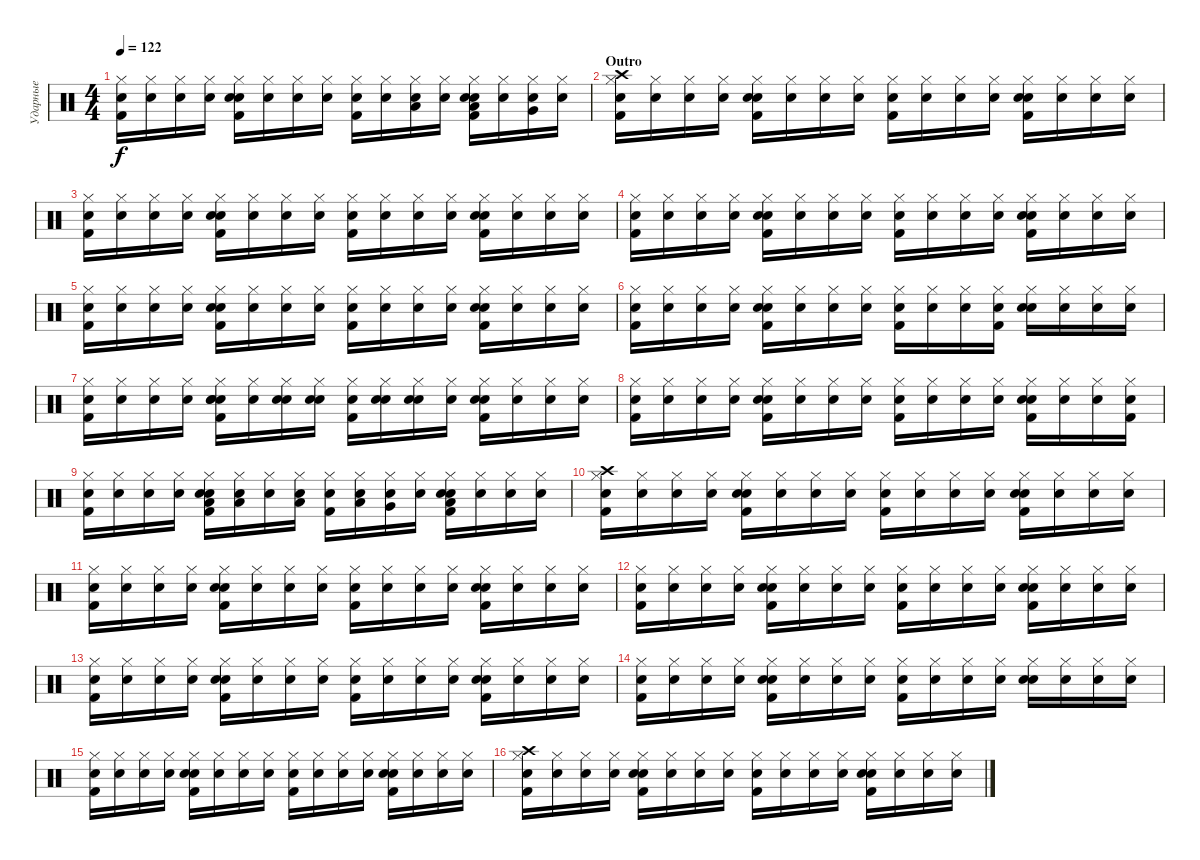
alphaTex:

\track ("Ударные" "Ударные") {instrument percussion}
\staff {score}
\articulation defaults
\ts (4 4)
\tempo 122
\clef neutral
\ks c
("Snare (hit)" "Kick (hit) 2" "Hi-Hat (closed)").16{dy f} ("Snare (hit)" "Hi-Hat (closed)").16 ("Snare (hit)" "Hi-Hat (closed)").16 ("Snare (hit)" "Hi-Hat (closed)").16 ("Snare (hit)" "Kick (hit) 2" "Snare (hit) 2" "Hi-Hat (closed)").16 ("Snare (hit)" "Hi-Hat (closed)").16 ("Snare (hit)" "Hi-Hat (closed)").16 ("Snare (hit)" "Hi-Hat (closed)").16 ("Snare (hit)" "Kick (hit) 2" "Hi-Hat (closed)").16 ("Snare (hit)" "Hi-Hat (closed)").16 ("Snare (hit)" "Low Tom (hit)" "Hi-Hat (closed)").16 ("Snare (hit)" "Hi-Hat (closed)").16 ("Snare (hit)" "Low Tom (hit)" "Kick (hit) 2" "Snare (hit) 2" "Hi-Hat (closed)").16 ("Snare (hit)" "Hi-Hat (closed)").16 ("Snare (hit)" "Very Low Tom (hit)" "Hi-Hat (closed)").16 ("Snare (hit)" "Hi-Hat (closed)").16 |
\section ("" "Outro")
("Snare (hit)" "Hi-Hat (closed)" "Kick (hit) 2" "Crash high (hit)").16 ("Snare (hit)" "Hi-Hat (closed)").16 ("Snare (hit)" "Hi-Hat (closed)").16 ("Snare (hit)" "Hi-Hat (closed)").16 ("Snare (hit)" "Kick (hit) 2" "Hi-Hat (closed)" "Snare (hit) 2").16 ("Snare (hit)" "Hi-Hat (closed)").16 ("Snare (hit)" "Hi-Hat (closed)").16 ("Snare (hit)" "Hi-Hat (closed)").16 ("Snare (hit)" "Hi-Hat (closed)" "Kick (hit) 2").16 ("Snare (hit)" "Hi-Hat (closed)").16 ("Snare (hit)" "Hi-Hat (closed)").16 ("Snare (hit)" "Hi-Hat (closed)").16 ("Snare (hit)" "Kick (hit) 2" "Hi-Hat (closed)" "Snare (hit) 2").16 ("Snare (hit)" "Hi-Hat (closed)").16 ("Snare (hit)" "Hi-Hat (closed)").16 ("Snare (hit)" "Hi-Hat (closed)").16 |
("Snare (hit)" "Kick (hit) 2" "Hi-Hat (closed)").16 ("Snare (hit)" "Hi-Hat (closed)").16 ("Snare (hit)" "Hi-Hat (closed)").16 ("Snare (hit)" "Hi-Hat (closed)").16 ("Snare (hit)" "Kick (hit) 2" "Snare (hit) 2" "Hi-Hat (closed)").16 ("Snare (hit)" "Hi-Hat (closed)").16 ("Snare (hit)" "Hi-Hat (closed)").16 ("Snare (hit)" "Hi-Hat (closed)").16 ("Snare (hit)" "Kick (hit) 2" "Hi-Hat (closed)").16 ("Snare (hit)" "Hi-Hat (closed)").16 ("Snare (hit)" "Hi-Hat (closed)").16 ("Snare (hit)" "Hi-Hat (closed)").16 ("Snare (hit)" "Kick (hit) 2" "Snare (hit) 2" "Hi-Hat (closed)").16 ("Snare (hit)" "Hi-Hat (closed)").16 ("Snare (hit)" "Hi-Hat (closed)").16 ("Snare (hit)" "Hi-Hat (closed)").16 |
("Snare (hit)" "Kick (hit) 2" "Hi-Hat (closed)").16 ("Snare (hit)" "Hi-Hat (closed)").16 ("Snare (hit)" "Hi-Hat (closed)").16 ("Snare (hit)" "Hi-Hat (closed)").16 ("Snare (hit)" "Kick (hit) 2" "Snare (hit) 2" "Hi-Hat (closed)").16 ("Snare (hit)" "Hi-Hat (closed)").16 ("Snare (hit)" "Hi-Hat (closed)").16 ("Snare (hit)" "Hi-Hat (closed)").16 ("Snare (hit)" "Kick (hit) 2" "Hi-Hat (closed)").16 ("Snare (hit)" "Hi-Hat (closed)").16 ("Snare (hit)" "Hi-Hat (closed)").16 ("Snare (hit)" "Hi-Hat (closed)").16 ("Snare (hit)" "Kick (hit) 2" "Snare (hit) 2" "Hi-Hat (closed)").16 ("Snare (hit)" "Hi-Hat (closed)").16 ("Snare (hit)" "Hi-Hat (closed)").16 ("Snare (hit)" "Hi-Hat (closed)").16 |
("Snare (hit)" "Kick (hit) 2" "Hi-Hat (closed)").16 ("Snare (hit)" "Hi-Hat (closed)").16 ("Snare (hit)" "Hi-Hat (closed)").16 ("Snare (hit)" "Hi-Hat (closed)").16 ("Snare (hit)" "Kick (hit) 2" "Snare (hit) 2" "Hi-Hat (closed)").16 ("Snare (hit)" "Hi-Hat (closed)").16 ("Snare (hit)" "Hi-Hat (closed)").16 ("Snare (hit)" "Hi-Hat (closed)").16 ("Snare (hit)" "Kick (hit) 2" "Hi-Hat (closed)").16 ("Snare (hit)" "Hi-Hat (closed)").16 ("Snare (hit)" "Hi-Hat (closed)").16 ("Snare (hit)" "Hi-Hat (closed)").16 ("Snare (hit)" "Kick (hit) 2" "Snare (hit) 2" "Hi-Hat (closed)").16 ("Snare (hit)" "Hi-Hat (closed)").16 ("Snare (hit)" "Hi-Hat (closed)").16 ("Snare (hit)" "Hi-Hat (closed)").16 |
("Snare (hit)" "Kick (hit) 2" "Hi-Hat (closed)").16 ("Snare (hit)" "Hi-Hat (closed)").16 ("Snare (hit)" "Hi-Hat (closed)").16 ("Snare (hit)" "Hi-Hat (closed)").16 ("Snare (hit)" "Kick (hit) 2" "Snare (hit) 2" "Hi-Hat (closed)").16 ("Snare (hit)" "Hi-Hat (closed)").16 ("Snare (hit)" "Hi-Hat (closed)").16 ("Snare (hit)" "Hi-Hat (closed)").16 ("Snare (hit)" "Kick (hit) 2" "Hi-Hat (closed)").16 ("Snare (hit)" "Hi-Hat (closed)").16 ("Snare (hit)" "Hi-Hat (closed)").16 ("Snare (hit)" "Kick (hit) 2" "Hi-Hat (closed)").16 ("Snare (hit)" "Snare (hit) 2" "Hi-Hat (closed)").16 ("Snare (hit)" "Hi-Hat (closed)").16 ("Snare (hit)" "Hi-Hat (closed)").16 ("Snare (hit)" "Hi-Hat (closed)").16 |
("Snare (hit)" "Kick (hit) 2" "Hi-Hat (closed)").16 ("Snare (hit)" "Hi-Hat (closed)").16 ("Snare (hit)" "Hi-Hat (closed)").16 ("Snare (hit)" "Hi-Hat (closed)").16 ("Snare (hit)" "Hand Clap (hit)" "Kick (hit) 2" "Snare (hit) 2" "Hi-Hat (closed)").16 ("Snare (hit)" "Hi-Hat (closed)").16 ("Snare (hit)" "Hand Clap (hit)" "Hi-Hat (closed)").16 ("Snare (hit)" "Hand Clap (hit)" "Hi-Hat (closed)").16 ("Snare (hit)" "Kick (hit) 2" "Hi-Hat (closed)").16 ("Snare (hit)" "Hand Clap (hit)" "Hi-Hat (closed)").16 ("Snare (hit)" "Hand Clap (hit)" "Hi-Hat (closed)").16 ("Snare (hit)" "Hi-Hat (closed)").16 ("Snare (hit)" "Kick (hit) 2" "Snare (hit) 2" "Hi-Hat (closed)").16 ("Snare (hit)" "Hi-Hat (closed)").16 ("Snare (hit)" "Hi-Hat (closed)").16 ("Snare (hit)" "Hi-Hat (closed)").16 |
("Snare (hit)" "Kick (hit) 2" "Hi-Hat (closed)").16 ("Snare (hit)" "Hi-Hat (closed)").16 ("Snare (hit)" "Hi-Hat (closed)").16 ("Snare (hit)" "Hi-Hat (closed)").16 ("Snare (hit)" "Kick (hit) 2" "Snare (hit) 2" "Hi-Hat (closed)").16 ("Snare (hit)" "Hi-Hat (closed)").16 ("Snare (hit)" "Hi-Hat (closed)").16 ("Snare (hit)" "Hi-Hat (closed)").16 ("Snare (hit)" "Kick (hit) 2" "Hi-Hat (closed)").16 ("Snare (hit)" "Hi-Hat (closed)").16 ("Snare (hit)" "Hi-Hat (closed)").16 ("Snare (hit)" "Hi-Hat (closed)").16 ("Snare (hit)" "Kick (hit) 2" "Snare (hit) 2" "Hi-Hat (closed)").16 ("Snare (hit)" "Hi-Hat (closed)").16 ("Snare (hit)" "Hi-Hat (closed)").16 ("Snare (hit)" "Kick (hit) 2" "Hi-Hat (closed)").16 |
("Snare (hit)" "Kick (hit) 2" "Hi-Hat (closed)").16 ("Snare (hit)" "Hi-Hat (closed)").16 ("Snare (hit)" "Hi-Hat (closed)").16 ("Snare (hit)" "Hi-Hat (closed)").16 ("Snare (hit)" "Kick (hit) 2" "Snare (hit) 2" "Hi-Hat (closed)" "Low Tom (hit)").16 ("Snare (hit)" "Hi-Hat (closed)" "Low Tom (hit)").16 ("Snare (hit)" "Hi-Hat (closed)").16 ("Snare (hit)" "Low Tom (hit)" "Hi-Hat (closed)").16 ("Snare (hit)" "Kick (hit) 2" "Hi-Hat (closed)").16 ("Snare (hit)" "Low Tom (hit)" "Hi-Hat (closed)").16 ("Snare (hit)" "Very Low Tom (hit)" "Hi-Hat (closed)").16 ("Snare (hit)" "Hi-Hat (closed)").16 ("Snare (hit)" "Kick (hit) 2" "Low Floor Tom (hit)" "Snare (hit) 2" "Hi-Hat (closed)").16 ("Snare (hit)" "Hi-Hat (closed)").16 ("Snare (hit)" "Hi-Hat (closed)").16 ("Snare (hit)" "Hi-Hat (closed)").16 |
("Snare (hit)" "Hi-Hat (closed)" "Kick (hit) 2" "Crash high (hit)").16 ("Snare (hit)" "Hi-Hat (closed)").16 ("Snare (hit)" "Hi-Hat (closed)").16 ("Snare (hit)" "Hi-Hat (closed)").16 ("Snare (hit)" "Kick (hit) 2" "Hi-Hat (closed)" "Snare (hit) 2").16 ("Snare (hit)" "Hi-Hat (closed)").16 ("Snare (hit)" "Hi-Hat (closed)").16 ("Snare (hit)" "Hi-Hat (closed)").16 ("Snare (hit)" "Hi-Hat (closed)" "Kick (hit) 2").16 ("Snare (hit)" "Hi-Hat (closed)").16 ("Snare (hit)" "Hi-Hat (closed)").16 ("Snare (hit)" "Hi-Hat (closed)").16 ("Snare (hit)" "Kick (hit) 2" "Hi-Hat (closed)" "Snare (hit) 2").16 ("Snare (hit)" "Hi-Hat (closed)").16 ("Snare (hit)" "Hi-Hat (closed)").16 ("Snare (hit)" "Hi-Hat (closed)").16 |
("Snare (hit)" "Kick (hit) 2" "Hi-Hat (closed)").16 ("Snare (hit)" "Hi-Hat (closed)").16 ("Snare (hit)" "Hi-Hat (closed)").16 ("Snare (hit)" "Hi-Hat (closed)").16 ("Snare (hit)" "Kick (hit) 2" "Snare (hit) 2" "Hi-Hat (closed)").16 ("Snare (hit)" "Hi-Hat (closed)").16 ("Snare (hit)" "Hi-Hat (closed)").16 ("Snare (hit)" "Hi-Hat (closed)").16 ("Snare (hit)" "Kick (hit) 2" "Hi-Hat (closed)").16 ("Snare (hit)" "Hi-Hat (closed)").16 ("Snare (hit)" "Hi-Hat (closed)").16 ("Snare (hit)" "Hi-Hat (closed)").16 ("Snare (hit)" "Kick (hit) 2" "Snare (hit) 2" "Hi-Hat (closed)").16 ("Snare (hit)" "Hi-Hat (closed)").16 ("Snare (hit)" "Hi-Hat (closed)").16 ("Snare (hit)" "Hi-Hat (closed)").16 |
("Snare (hit)" "Kick (hit) 2" "Hi-Hat (closed)").16 ("Snare (hit)" "Hi-Hat (closed)").16 ("Snare (hit)" "Hi-Hat (closed)").16 ("Snare (hit)" "Hi-Hat (closed)").16 ("Snare (hit)" "Kick (hit) 2" "Snare (hit) 2" "Hi-Hat (closed)").16 ("Snare (hit)" "Hi-Hat (closed)").16 ("Snare (hit)" "Hi-Hat (closed)").16 ("Snare (hit)" "Hi-Hat (closed)").16 ("Snare (hit)" "Kick (hit) 2" "Hi-Hat (closed)").16 ("Snare (hit)" "Hi-Hat (closed)").16 ("Snare (hit)" "Hi-Hat (closed)").16 ("Snare (hit)" "Hi-Hat (closed)").16 ("Snare (hit)" "Kick (hit) 2" "Snare (hit) 2" "Hi-Hat (closed)").16 ("Snare (hit)" "Hi-Hat (closed)").16 ("Snare (hit)" "Hi-Hat (closed)").16 ("Snare (hit)" "Hi-Hat (closed)").16 |
("Snare (hit)" "Kick (hit) 2" "Hi-Hat (closed)").16 ("Snare (hit)" "Hi-Hat (closed)").16 ("Snare (hit)" "Hi-Hat (closed)").16 ("Snare (hit)" "Hi-Hat (closed)").16 ("Snare (hit)" "Kick (hit) 2" "Snare (hit) 2" "Hi-Hat (closed)").16 ("Snare (hit)" "Hi-Hat (closed)").16 ("Snare (hit)" "Hi-Hat (closed)").16 ("Snare (hit)" "Hi-Hat (closed)").16 ("Snare (hit)" "Kick (hit) 2" "Hi-Hat (closed)").16 ("Snare (hit)" "Hi-Hat (closed)").16 ("Snare (hit)" "Hi-Hat (closed)").16 ("Snare (hit)" "Hi-Hat (closed)").16 ("Snare (hit)" "Kick (hit) 2" "Snare (hit) 2" "Hi-Hat (closed)").16 ("Snare (hit)" "Hi-Hat (closed)").16 ("Snare (hit)" "Hi-Hat (closed)").16 ("Snare (hit)" "Hi-Hat (closed)").16 |
("Snare (hit)" "Kick (hit) 2" "Hi-Hat (closed)").16 ("Snare (hit)" "Hi-Hat (closed)").16 ("Snare (hit)" "Hi-Hat (closed)").16 ("Snare (hit)" "Hi-Hat (closed)").16 ("Snare (hit)" "Kick (hit) 2" "Snare (hit) 2" "Hi-Hat (closed)").16 ("Snare (hit)" "Hi-Hat (closed)").16 ("Snare (hit)" "Hi-Hat (closed)").16 ("Snare (hit)" "Hi-Hat (closed)").16 ("Snare (hit)" "Kick (hit) 2" "Hi-Hat (closed)").16 ("Snare (hit)" "Hi-Hat (closed)").16 ("Snare (hit)" "Hi-Hat (closed)").16 ("Snare (hit)" "Hi-Hat (closed)").16 ("Snare (hit)" "Snare (hit) 2" "Hi-Hat (closed)").16 ("Snare (hit)" "Hi-Hat (closed)").16 ("Snare (hit)" "Hi-Hat (closed)").16 ("Snare (hit)" "Hi-Hat (closed)").16 |
("Snare (hit)" "Kick (hit) 2" "Hi-Hat (closed)").16 ("Snare (hit)" "Hi-Hat (closed)").16 ("Snare (hit)" "Hi-Hat (closed)").16 ("Snare (hit)" "Hi-Hat (closed)").16 ("Snare (hit)" "Kick (hit) 2" "Snare (hit) 2" "Hi-Hat (closed)").16 ("Snare (hit)" "Hi-Hat (closed)").16 ("Snare (hit)" "Hi-Hat (closed)").16 ("Snare (hit)" "Hi-Hat (closed)").16 ("Snare (hit)" "Kick (hit) 2" "Hi-Hat (closed)").16 ("Snare (hit)" "Hi-Hat (closed)").16 ("Snare (hit)" "Hi-Hat (closed)").16 ("Snare (hit)" "Hi-Hat (closed)").16 ("Snare (hit)" "Kick (hit) 2" "Snare (hit) 2" "Hi-Hat (closed)").16 ("Snare (hit)" "Hi-Hat (closed)").16 ("Snare (hit)" "Hi-Hat (closed)").16 ("Snare (hit)" "Hi-Hat (closed)").16 |
("Snare (hit)" "Crash high (hit)" "Kick (hit) 2" "Hi-Hat (closed)").16 ("Snare (hit)" "Hi-Hat (closed)").16 ("Snare (hit)" "Hi-Hat (closed)").16 ("Snare (hit)" "Hi-Hat (closed)").16 ("Snare (hit)" "Kick (hit) 2" "Snare (hit) 2" "Hi-Hat (closed)").16 ("Snare (hit)" "Hi-Hat (closed)").16 ("Snare (hit)" "Hi-Hat (closed)").16 ("Snare (hit)" "Hi-Hat (closed)").16 ("Snare (hit)" "Kick (hit) 2" "Hi-Hat (closed)").16 ("Snare (hit)" "Hi-Hat (closed)").16 ("Snare (hit)" "Hi-Hat (closed)").16 ("Snare (hit)" "Hi-Hat (closed)").16 ("Snare (hit)" "Kick (hit) 2" "Snare (hit) 2" "Hi-Hat (closed)").16 ("Snare (hit)" "Hi-Hat (closed)").16 ("Snare (hit)" "Hi-Hat (closed)").16 ("Snare (hit)" "Hi-Hat (closed)").16
